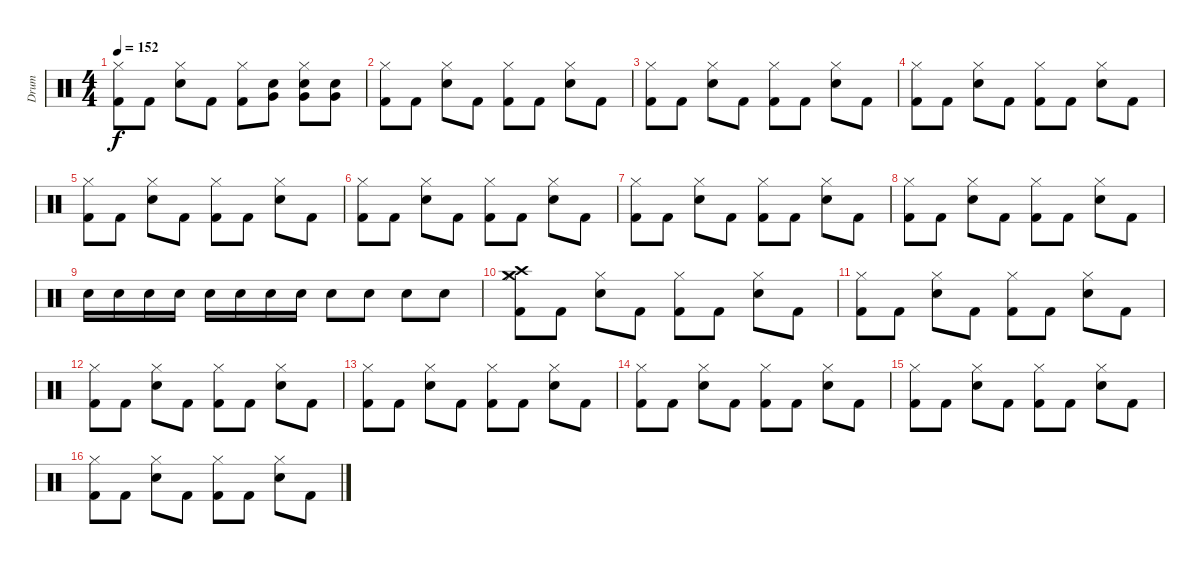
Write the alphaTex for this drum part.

\track ("Drum" "Drum") {instrument percussion}
\staff {score}
\articulation defaults
\ts (4 4)
\tempo 152
\clef neutral
\ks c
("Hi-Hat (closed)" "Kick (hit) 2").8{dy f} "Kick (hit) 2".8 ("Hi-Hat (closed)" "Electric Snare (hit)").8 "Kick (hit) 2".8 ("Hi-Hat (closed)" "Kick (hit) 2").8 ("Very Low Tom (hit)" "Electric Snare (hit)").8 ("Hi-Hat (closed)" "Very Low Tom (hit)" "Electric Snare (hit)").8 ("Very Low Tom (hit)" "Electric Snare (hit)").8 |
("Hi-Hat (closed)" "Kick (hit) 2").8 "Kick (hit) 2".8 ("Hi-Hat (closed)" "Electric Snare (hit)").8 "Kick (hit) 2".8 ("Hi-Hat (closed)" "Kick (hit) 2").8 "Kick (hit) 2".8 ("Hi-Hat (closed)" "Electric Snare (hit)").8 "Kick (hit) 2".8 |
("Hi-Hat (closed)" "Kick (hit) 2").8 "Kick (hit) 2".8 ("Hi-Hat (closed)" "Electric Snare (hit)").8 "Kick (hit) 2".8 ("Hi-Hat (closed)" "Kick (hit) 2").8 "Kick (hit) 2".8 ("Hi-Hat (closed)" "Electric Snare (hit)").8 "Kick (hit) 2".8 |
("Hi-Hat (closed)" "Kick (hit) 2").8 "Kick (hit) 2".8 ("Hi-Hat (closed)" "Electric Snare (hit)").8 "Kick (hit) 2".8 ("Hi-Hat (closed)" "Kick (hit) 2").8 "Kick (hit) 2".8 ("Hi-Hat (closed)" "Electric Snare (hit)").8 "Kick (hit) 2".8 |
("Hi-Hat (closed)" "Kick (hit) 2").8 "Kick (hit) 2".8 ("Hi-Hat (closed)" "Electric Snare (hit)").8 "Kick (hit) 2".8 ("Hi-Hat (closed)" "Kick (hit) 2").8 "Kick (hit) 2".8 ("Hi-Hat (closed)" "Electric Snare (hit)").8 "Kick (hit) 2".8 |
("Hi-Hat (closed)" "Kick (hit) 2").8 "Kick (hit) 2".8 ("Hi-Hat (closed)" "Electric Snare (hit)").8 "Kick (hit) 2".8 ("Hi-Hat (closed)" "Kick (hit) 2").8 "Kick (hit) 2".8 ("Hi-Hat (closed)" "Electric Snare (hit)").8 "Kick (hit) 2".8 |
("Hi-Hat (closed)" "Kick (hit) 2").8 "Kick (hit) 2".8 ("Hi-Hat (closed)" "Electric Snare (hit)").8 "Kick (hit) 2".8 ("Hi-Hat (closed)" "Kick (hit) 2").8 "Kick (hit) 2".8 ("Hi-Hat (closed)" "Electric Snare (hit)").8 "Kick (hit) 2".8 |
("Hi-Hat (closed)" "Kick (hit) 2").8 "Kick (hit) 2".8 ("Hi-Hat (closed)" "Electric Snare (hit)").8 "Kick (hit) 2".8 ("Hi-Hat (closed)" "Kick (hit) 2").8 "Kick (hit) 2".8 ("Hi-Hat (closed)" "Electric Snare (hit)").8 "Kick (hit) 2".8 |
"Electric Snare (hit)".16 "Electric Snare (hit)".16 "Electric Snare (hit)".16 "Electric Snare (hit)".16 "Electric Snare (hit)".16 "Electric Snare (hit)".16 "Electric Snare (hit)".16 "Electric Snare (hit)".16 "Electric Snare (hit)".8 "Electric Snare (hit)".8 "Electric Snare (hit)".8 "Electric Snare (hit)".8 |
("Crash high (hit)" "Crash medium (hit)" "Hi-Hat (closed)" "Kick (hit) 2").8 "Kick (hit) 2".8 ("Hi-Hat (closed)" "Electric Snare (hit)").8 "Kick (hit) 2".8 ("Hi-Hat (closed)" "Kick (hit) 2").8 "Kick (hit) 2".8 ("Hi-Hat (closed)" "Electric Snare (hit)").8 "Kick (hit) 2".8 |
("Hi-Hat (closed)" "Kick (hit) 2").8 "Kick (hit) 2".8 ("Hi-Hat (closed)" "Electric Snare (hit)").8 "Kick (hit) 2".8 ("Hi-Hat (closed)" "Kick (hit) 2").8 "Kick (hit) 2".8 ("Hi-Hat (closed)" "Electric Snare (hit)").8 "Kick (hit) 2".8 |
("Hi-Hat (closed)" "Kick (hit) 2").8 "Kick (hit) 2".8 ("Hi-Hat (closed)" "Electric Snare (hit)").8 "Kick (hit) 2".8 ("Hi-Hat (closed)" "Kick (hit) 2").8 "Kick (hit) 2".8 ("Hi-Hat (closed)" "Electric Snare (hit)").8 "Kick (hit) 2".8 |
("Hi-Hat (closed)" "Kick (hit) 2").8 "Kick (hit) 2".8 ("Hi-Hat (closed)" "Electric Snare (hit)").8 "Kick (hit) 2".8 ("Hi-Hat (closed)" "Kick (hit) 2").8 "Kick (hit) 2".8 ("Hi-Hat (closed)" "Electric Snare (hit)").8 "Kick (hit) 2".8 |
("Hi-Hat (closed)" "Kick (hit) 2").8 "Kick (hit) 2".8 ("Hi-Hat (closed)" "Electric Snare (hit)").8 "Kick (hit) 2".8 ("Hi-Hat (closed)" "Kick (hit) 2").8 "Kick (hit) 2".8 ("Hi-Hat (closed)" "Electric Snare (hit)").8 "Kick (hit) 2".8 |
("Hi-Hat (closed)" "Kick (hit) 2").8 "Kick (hit) 2".8 ("Hi-Hat (closed)" "Electric Snare (hit)").8 "Kick (hit) 2".8 ("Hi-Hat (closed)" "Kick (hit) 2").8 "Kick (hit) 2".8 ("Hi-Hat (closed)" "Electric Snare (hit)").8 "Kick (hit) 2".8 |
("Hi-Hat (closed)" "Kick (hit) 2").8 "Kick (hit) 2".8 ("Hi-Hat (closed)" "Electric Snare (hit)").8 "Kick (hit) 2".8 ("Hi-Hat (closed)" "Kick (hit) 2").8 "Kick (hit) 2".8 ("Hi-Hat (closed)" "Electric Snare (hit)").8 "Kick (hit) 2".8
